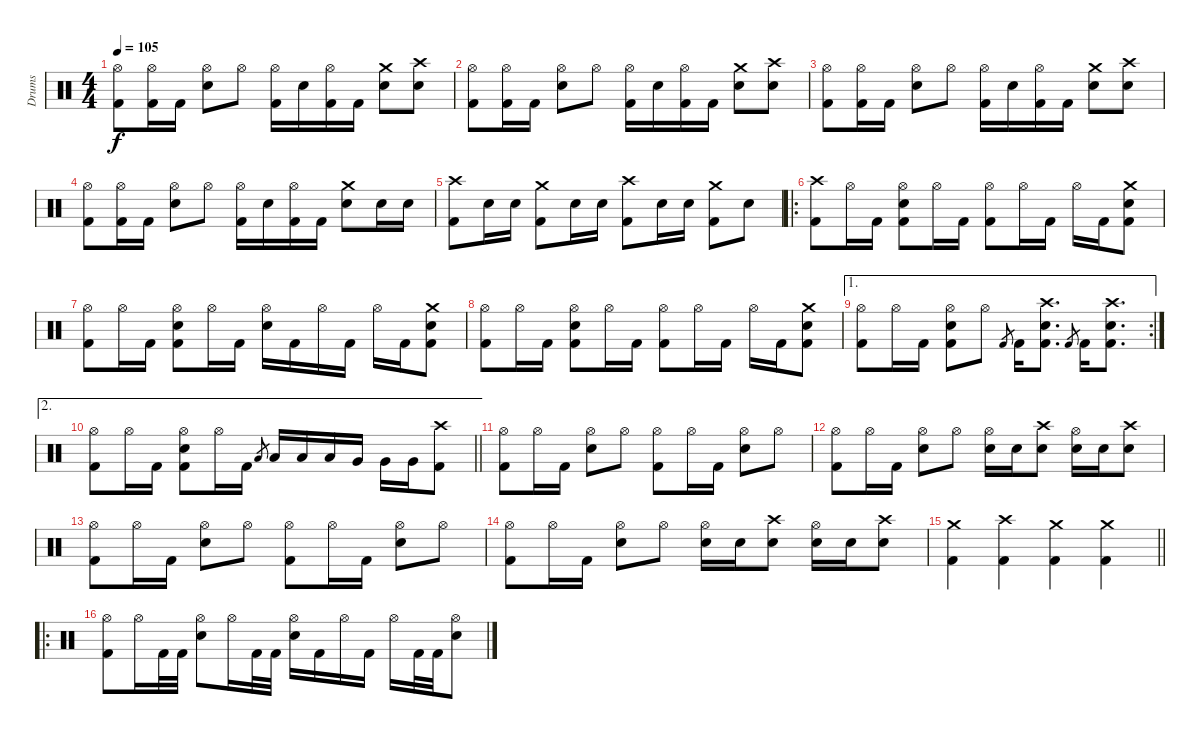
\track ("Drums" "Drums") {instrument percussion}
\staff {score}
\articulation defaults
\ts (4 4)
\tempo 105
\clef neutral
\ks c
("Hi-Hat (open)" "Kick (hit) 2").8{dy f} ("Hi-Hat (open)" "Kick (hit) 2").16 "Kick (hit) 2".16 ("Hi-Hat (open)" "Snare (hit) 2").8 "Hi-Hat (open)".8 ("Hi-Hat (open)" "Kick (hit) 2").16 "Snare (hit) 2".16 ("Hi-Hat (open)" "Kick (hit) 2").16 "Kick (hit) 2".16 ("Crash medium (hit)" "Snare (hit) 2").8 ("Crash high (hit)" "Snare (hit) 2").8 |
("Hi-Hat (open)" "Kick (hit) 2").8 ("Hi-Hat (open)" "Kick (hit) 2").16 "Kick (hit) 2".16 ("Hi-Hat (open)" "Snare (hit) 2").8 "Hi-Hat (open)".8 ("Hi-Hat (open)" "Kick (hit) 2").16 "Snare (hit) 2".16 ("Hi-Hat (open)" "Kick (hit) 2").16 "Kick (hit) 2".16 ("Crash medium (hit)" "Snare (hit) 2").8 ("Crash high (hit)" "Snare (hit) 2").8 |
("Hi-Hat (open)" "Kick (hit) 2").8 ("Hi-Hat (open)" "Kick (hit) 2").16 "Kick (hit) 2".16 ("Hi-Hat (open)" "Snare (hit) 2").8 "Hi-Hat (open)".8 ("Hi-Hat (open)" "Kick (hit) 2").16 "Snare (hit) 2".16 ("Hi-Hat (open)" "Kick (hit) 2").16 "Kick (hit) 2".16 ("Crash medium (hit)" "Snare (hit) 2").8 ("Crash high (hit)" "Snare (hit) 2").8 |
("Hi-Hat (open)" "Kick (hit) 2").8 ("Hi-Hat (open)" "Kick (hit) 2").16 "Kick (hit) 2".16 ("Hi-Hat (open)" "Snare (hit) 2").8 "Hi-Hat (open)".8 ("Hi-Hat (open)" "Kick (hit) 2").16 "Snare (hit) 2".16 ("Hi-Hat (open)" "Kick (hit) 2").16 "Kick (hit) 2".16 ("Crash medium (hit)" "Snare (hit) 2").8 "Snare (hit) 2".16 "Snare (hit) 2".16 |
("Crash high (hit)" "Kick (hit) 2").8 "Snare (hit) 2".16 "Snare (hit) 2".16 ("Crash medium (hit)" "Kick (hit) 2").8 "Snare (hit) 2".16 "Snare (hit) 2".16 ("Crash high (hit)" "Kick (hit) 2").8 "Snare (hit) 2".16 "Snare (hit) 2".16 ("Crash medium (hit)" "Kick (hit) 2").8 "Snare (hit) 2".8 |
\ro
("Crash high (hit)" "Kick (hit) 2").8 "Hi-Hat (open)".16 "Kick (hit) 2".16 ("Hi-Hat (open)" "Snare (hit) 2" "Kick (hit) 2").8 "Hi-Hat (open)".16 "Kick (hit) 2".16 ("Hi-Hat (open)" "Kick (hit) 2").8 "Hi-Hat (open)".16 "Kick (hit) 2".16 "Hi-Hat (open)".16 "Kick (hit) 2".16 ("Crash medium (hit)" "Snare (hit) 2" "Kick (hit) 2").8 |
("Hi-Hat (open)" "Kick (hit) 2").8 "Hi-Hat (open)".16 "Kick (hit) 2".16 ("Hi-Hat (open)" "Snare (hit) 2" "Kick (hit) 2").8 "Hi-Hat (open)".16 "Kick (hit) 2".16 ("Hi-Hat (open)" "Snare (hit) 2").16 "Kick (hit) 2".16 "Hi-Hat (open)".16 "Kick (hit) 2".16 "Hi-Hat (open)".16 "Kick (hit) 2".16 ("Crash medium (hit)" "Snare (hit) 2" "Kick (hit) 2").8 |
("Hi-Hat (open)" "Kick (hit) 2").8 "Hi-Hat (open)".16 "Kick (hit) 2".16 ("Hi-Hat (open)" "Snare (hit) 2" "Kick (hit) 2").8 "Hi-Hat (open)".16 "Kick (hit) 2".16 ("Hi-Hat (open)" "Kick (hit) 2").8 "Hi-Hat (open)".16 "Kick (hit) 2".16 "Hi-Hat (open)".16 "Kick (hit) 2".16 ("Crash medium (hit)" "Snare (hit) 2" "Kick (hit) 2").8 |
\ae 1
\rc 2
("Hi-Hat (open)" "Kick (hit) 2").8 "Hi-Hat (open)".16 "Kick (hit) 2".16 ("Hi-Hat (open)" "Snare (hit) 2" "Kick (hit) 2").8 "Hi-Hat (open)".8 "Kick (hit) 2".8{gr} "Kick (hit) 2".16 ("Crash high (hit)" "Snare (hit) 2" "Kick (hit) 2").8{d} "Kick (hit) 2".8{gr} "Kick (hit) 2".16 ("Crash high (hit)" "Snare (hit) 2" "Kick (hit) 2").8{d} |
\ae 2
\barLineRight lightlight
("Hi-Hat (open)" "Kick (hit) 2").8 "Hi-Hat (open)".16 "Kick (hit) 2".16 ("Hi-Hat (open)" "Snare (hit) 2" "Kick (hit) 2").8 "Hi-Hat (open)".16 "Kick (hit) 2".16 "Low Tom (hit)".8{gr} "Low Tom (hit)".16 "Low Tom (hit)".16 "Low Tom (hit)".16 "Very Low Tom (hit)".16 "Very Low Tom (hit)".16 "Very Low Tom (hit)".16 ("Crash high (hit)" "Kick (hit) 2").8 |
("Hi-Hat (open)" "Kick (hit) 2").8 "Hi-Hat (open)".16 "Kick (hit) 2".16 ("Hi-Hat (open)" "Snare (hit) 2").8 "Hi-Hat (open)".8 ("Hi-Hat (open)" "Kick (hit) 2").8 "Hi-Hat (open)".16 "Kick (hit) 2".16 ("Hi-Hat (open)" "Snare (hit) 2").8 "Hi-Hat (open)".8 |
("Hi-Hat (open)" "Kick (hit) 2").8 "Hi-Hat (open)".16 "Kick (hit) 2".16 ("Hi-Hat (open)" "Snare (hit) 2").8 "Hi-Hat (open)".8 ("Hi-Hat (open)" "Snare (hit) 2").16 "Snare (hit) 2".16 ("Crash high (hit)" "Snare (hit) 2").8 ("Hi-Hat (open)" "Snare (hit) 2").16 "Snare (hit) 2".16 ("Crash high (hit)" "Snare (hit) 2").8 |
("Hi-Hat (open)" "Kick (hit) 2").8 "Hi-Hat (open)".16 "Kick (hit) 2".16 ("Hi-Hat (open)" "Snare (hit) 2").8 "Hi-Hat (open)".8 ("Hi-Hat (open)" "Kick (hit) 2").8 "Hi-Hat (open)".16 "Kick (hit) 2".16 ("Hi-Hat (open)" "Snare (hit) 2").8 "Hi-Hat (open)".8 |
("Hi-Hat (open)" "Kick (hit) 2").8 "Hi-Hat (open)".16 "Kick (hit) 2".16 ("Hi-Hat (open)" "Snare (hit) 2").8 "Hi-Hat (open)".8 ("Hi-Hat (open)" "Snare (hit) 2").16 "Snare (hit) 2".16 ("Crash high (hit)" "Snare (hit) 2").8 ("Hi-Hat (open)" "Snare (hit) 2").16 "Snare (hit) 2".16 ("Crash high (hit)" "Snare (hit) 2").8 |
\barLineRight lightlight
("Crash medium (hit)" "Kick (hit) 2").4 ("Crash high (hit)" "Kick (hit) 2").4 ("Crash medium (hit)" "Kick (hit) 2").4 ("Crash medium (hit)" "Kick (hit) 2").4 |
\ro
("Hi-Hat (open)" "Kick (hit) 2").8 "Hi-Hat (open)".16 "Kick (hit) 2".32 "Kick (hit) 2".32 ("Hi-Hat (open)" "Snare (hit) 2").8 "Hi-Hat (open)".16 "Kick (hit) 2".32 "Kick (hit) 2".32 ("Hi-Hat (open)" "Snare (hit) 2").16 "Kick (hit) 2".16 "Hi-Hat (open)".16 "Kick (hit) 2".16 "Hi-Hat (open)".16 "Kick (hit) 2".32 "Kick (hit) 2".32 ("Hi-Hat (open)" "Snare (hit) 2").8
